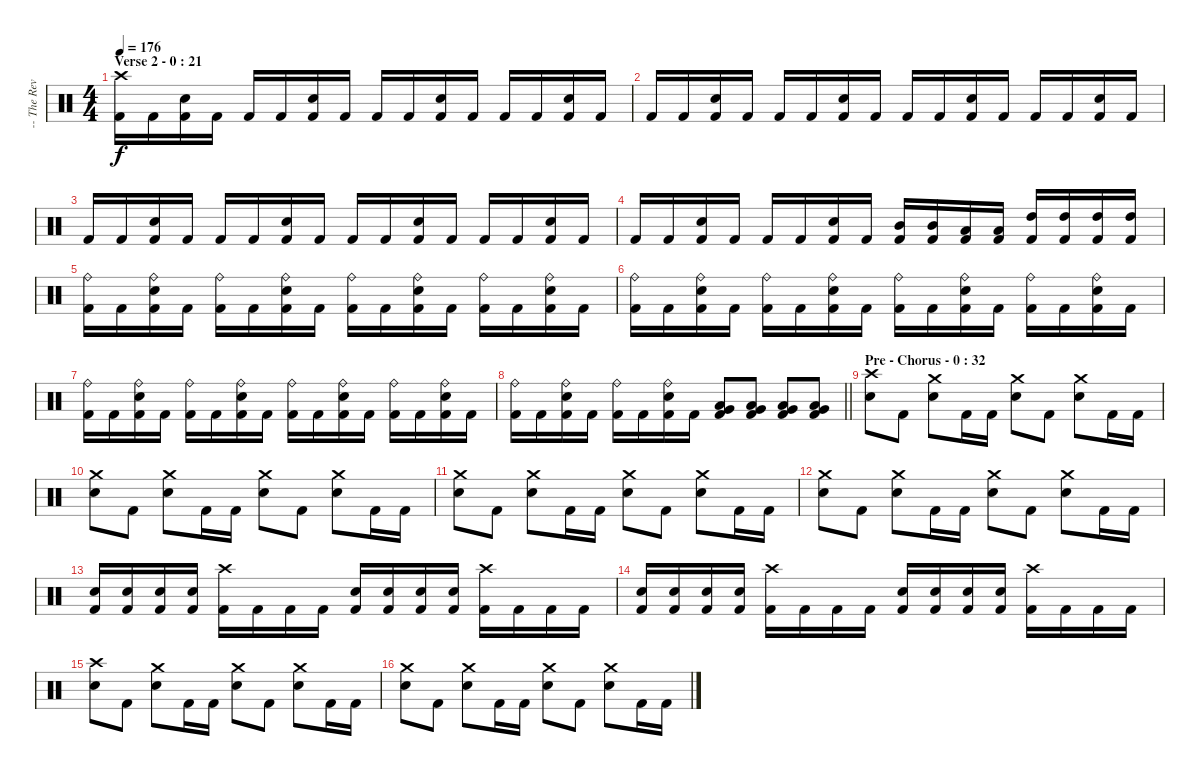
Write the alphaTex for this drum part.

\track ("-- The Reverend - Drums" "-- The Rev") {instrument percussion}
\staff {score}
\articulation defaults
\ts (4 4)
\section ("" "Verse 2 - 0 : 21")
\tempo 176
\clef neutral
\ks c
("Crash high (hit)" "Kick (hit) 2").16{dy f} "Kick (hit) 2".16 ("Electric Snare (hit)" "Kick (hit) 2").16 "Kick (hit) 2".16 "Kick (hit) 2".16 "Kick (hit) 2".16 ("Electric Snare (hit)" "Kick (hit) 2").16 "Kick (hit) 2".16 "Kick (hit) 2".16 "Kick (hit) 2".16 ("Electric Snare (hit)" "Kick (hit) 2").16 "Kick (hit) 2".16 "Kick (hit) 2".16 "Kick (hit) 2".16 ("Electric Snare (hit)" "Kick (hit) 2").16 "Kick (hit) 2".16 |
"Kick (hit) 2".16 "Kick (hit) 2".16 ("Electric Snare (hit)" "Kick (hit) 2").16 "Kick (hit) 2".16 "Kick (hit) 2".16 "Kick (hit) 2".16 ("Electric Snare (hit)" "Kick (hit) 2").16 "Kick (hit) 2".16 "Kick (hit) 2".16 "Kick (hit) 2".16 ("Electric Snare (hit)" "Kick (hit) 2").16 "Kick (hit) 2".16 "Kick (hit) 2".16 "Kick (hit) 2".16 ("Electric Snare (hit)" "Kick (hit) 2").16 "Kick (hit) 2".16 |
"Kick (hit) 2".16 "Kick (hit) 2".16 ("Electric Snare (hit)" "Kick (hit) 2").16 "Kick (hit) 2".16 "Kick (hit) 2".16 "Kick (hit) 2".16 ("Electric Snare (hit)" "Kick (hit) 2").16 "Kick (hit) 2".16 "Kick (hit) 2".16 "Kick (hit) 2".16 ("Electric Snare (hit)" "Kick (hit) 2").16 "Kick (hit) 2".16 "Kick (hit) 2".16 "Kick (hit) 2".16 ("Electric Snare (hit)" "Kick (hit) 2").16 "Kick (hit) 2".16 |
"Kick (hit) 2".16 "Kick (hit) 2".16 ("Electric Snare (hit)" "Kick (hit) 2").16 "Kick (hit) 2".16 "Kick (hit) 2".16 "Kick (hit) 2".16 ("Electric Snare (hit)" "Kick (hit) 2").16 "Kick (hit) 2".16 ("Mid Tom (hit)" "Kick (hit) 2").16 ("Mid Tom (hit)" "Kick (hit) 2").16 ("Low Tom (hit)" "Kick (hit) 2").16 ("Low Tom (hit)" "Kick (hit) 2").16 ("High Tom (hit)" "Kick (hit) 2").16 ("High Tom (hit)" "Kick (hit) 2").16 ("High Tom (hit)" "Kick (hit) 2").16 ("High Tom (hit)" "Kick (hit) 2").16 |
("Ride (bell)" "Kick (hit) 2").16 "Kick (hit) 2".16 ("Ride (bell)" "Electric Snare (hit)" "Kick (hit) 2").16 "Kick (hit) 2".16 ("Ride (bell)" "Kick (hit) 2").16 "Kick (hit) 2".16 ("Ride (bell)" "Electric Snare (hit)" "Kick (hit) 2").16 "Kick (hit) 2".16 ("Ride (bell)" "Kick (hit) 2").16 "Kick (hit) 2".16 ("Ride (bell)" "Electric Snare (hit)" "Kick (hit) 2").16 "Kick (hit) 2".16 ("Ride (bell)" "Kick (hit) 2").16 "Kick (hit) 2".16 ("Ride (bell)" "Electric Snare (hit)" "Kick (hit) 2").16 "Kick (hit) 2".16 |
("Ride (bell)" "Kick (hit) 2").16 "Kick (hit) 2".16 ("Ride (bell)" "Electric Snare (hit)" "Kick (hit) 2").16 "Kick (hit) 2".16 ("Ride (bell)" "Kick (hit) 2").16 "Kick (hit) 2".16 ("Ride (bell)" "Electric Snare (hit)" "Kick (hit) 2").16 "Kick (hit) 2".16 ("Ride (bell)" "Kick (hit) 2").16 "Kick (hit) 2".16 ("Ride (bell)" "Electric Snare (hit)" "Kick (hit) 2").16 "Kick (hit) 2".16 ("Ride (bell)" "Kick (hit) 2").16 "Kick (hit) 2".16 ("Ride (bell)" "Electric Snare (hit)" "Kick (hit) 2").16 "Kick (hit) 2".16 |
("Ride (bell)" "Kick (hit) 2").16 "Kick (hit) 2".16 ("Ride (bell)" "Electric Snare (hit)" "Kick (hit) 2").16 "Kick (hit) 2".16 ("Ride (bell)" "Kick (hit) 2").16 "Kick (hit) 2".16 ("Ride (bell)" "Electric Snare (hit)" "Kick (hit) 2").16 "Kick (hit) 2".16 ("Ride (bell)" "Kick (hit) 2").16 "Kick (hit) 2".16 ("Ride (bell)" "Electric Snare (hit)" "Kick (hit) 2").16 "Kick (hit) 2".16 ("Ride (bell)" "Kick (hit) 2").16 "Kick (hit) 2".16 ("Ride (bell)" "Electric Snare (hit)" "Kick (hit) 2").16 "Kick (hit) 2".16 |
\barLineRight lightlight
("Ride (bell)" "Kick (hit) 2").16 "Kick (hit) 2".16 ("Ride (bell)" "Electric Snare (hit)" "Kick (hit) 2").16 "Kick (hit) 2".16 ("Ride (bell)" "Kick (hit) 2").16 "Kick (hit) 2".16 ("Ride (bell)" "Electric Snare (hit)" "Kick (hit) 2").16 "Kick (hit) 2".16 ("Very Low Tom (hit)" "Low Floor Tom (hit)" "Kick (hit) 2").8 ("Very Low Tom (hit)" "Low Floor Tom (hit)" "Kick (hit) 2").8 ("Very Low Tom (hit)" "Low Floor Tom (hit)" "Kick (hit) 2").8 ("Very Low Tom (hit)" "Low Floor Tom (hit)" "Kick (hit) 2").8 |
\section ("" "Pre - Chorus - 0 : 32")
("Crash high (hit)" "Electric Snare (hit)").8 "Kick (hit) 2".8 ("Crash medium (hit)" "Electric Snare (hit)").8 "Kick (hit) 2".16 "Kick (hit) 2".16 ("Crash medium (hit)" "Electric Snare (hit)").8 "Kick (hit) 2".8 ("Crash medium (hit)" "Electric Snare (hit)").8 "Kick (hit) 2".16 "Kick (hit) 2".16 |
("Crash medium (hit)" "Electric Snare (hit)").8 "Kick (hit) 2".8 ("Crash medium (hit)" "Electric Snare (hit)").8 "Kick (hit) 2".16 "Kick (hit) 2".16 ("Crash medium (hit)" "Electric Snare (hit)").8 "Kick (hit) 2".8 ("Crash medium (hit)" "Electric Snare (hit)").8 "Kick (hit) 2".16 "Kick (hit) 2".16 |
("Crash medium (hit)" "Electric Snare (hit)").8 "Kick (hit) 2".8 ("Crash medium (hit)" "Electric Snare (hit)").8 "Kick (hit) 2".16 "Kick (hit) 2".16 ("Crash medium (hit)" "Electric Snare (hit)").8 "Kick (hit) 2".8 ("Crash medium (hit)" "Electric Snare (hit)").8 "Kick (hit) 2".16 "Kick (hit) 2".16 |
("Crash medium (hit)" "Electric Snare (hit)").8 "Kick (hit) 2".8 ("Crash medium (hit)" "Electric Snare (hit)").8 "Kick (hit) 2".16 "Kick (hit) 2".16 ("Crash medium (hit)" "Electric Snare (hit)").8 "Kick (hit) 2".8 ("Crash medium (hit)" "Electric Snare (hit)").8 "Kick (hit) 2".16 "Kick (hit) 2".16 |
("Electric Snare (hit)" "Kick (hit) 2").16 ("Electric Snare (hit)" "Kick (hit) 2").16 ("Electric Snare (hit)" "Kick (hit) 2").16 ("Electric Snare (hit)" "Kick (hit) 2").16 ("Crash high (hit)" "Kick (hit) 2").16 "Kick (hit) 2".16 "Kick (hit) 2".16 "Kick (hit) 2".16 ("Electric Snare (hit)" "Kick (hit) 2").16 ("Electric Snare (hit)" "Kick (hit) 2").16 ("Electric Snare (hit)" "Kick (hit) 2").16 ("Electric Snare (hit)" "Kick (hit) 2").16 ("Crash high (hit)" "Kick (hit) 2").16 "Kick (hit) 2".16 "Kick (hit) 2".16 "Kick (hit) 2".16 |
("Electric Snare (hit)" "Kick (hit) 2").16 ("Electric Snare (hit)" "Kick (hit) 2").16 ("Electric Snare (hit)" "Kick (hit) 2").16 ("Electric Snare (hit)" "Kick (hit) 2").16 ("Crash high (hit)" "Kick (hit) 2").16 "Kick (hit) 2".16 "Kick (hit) 2".16 "Kick (hit) 2".16 ("Electric Snare (hit)" "Kick (hit) 2").16 ("Electric Snare (hit)" "Kick (hit) 2").16 ("Electric Snare (hit)" "Kick (hit) 2").16 ("Electric Snare (hit)" "Kick (hit) 2").16 ("Crash high (hit)" "Kick (hit) 2").16 "Kick (hit) 2".16 "Kick (hit) 2".16 "Kick (hit) 2".16 |
("Crash high (hit)" "Electric Snare (hit)").8 "Kick (hit) 2".8 ("Crash medium (hit)" "Electric Snare (hit)").8 "Kick (hit) 2".16 "Kick (hit) 2".16 ("Crash medium (hit)" "Electric Snare (hit)").8 "Kick (hit) 2".8 ("Crash medium (hit)" "Electric Snare (hit)").8 "Kick (hit) 2".16 "Kick (hit) 2".16 |
("Crash medium (hit)" "Electric Snare (hit)").8 "Kick (hit) 2".8 ("Crash medium (hit)" "Electric Snare (hit)").8 "Kick (hit) 2".16 "Kick (hit) 2".16 ("Crash medium (hit)" "Electric Snare (hit)").8 "Kick (hit) 2".8 ("Crash medium (hit)" "Electric Snare (hit)").8 "Kick (hit) 2".16 "Kick (hit) 2".16
